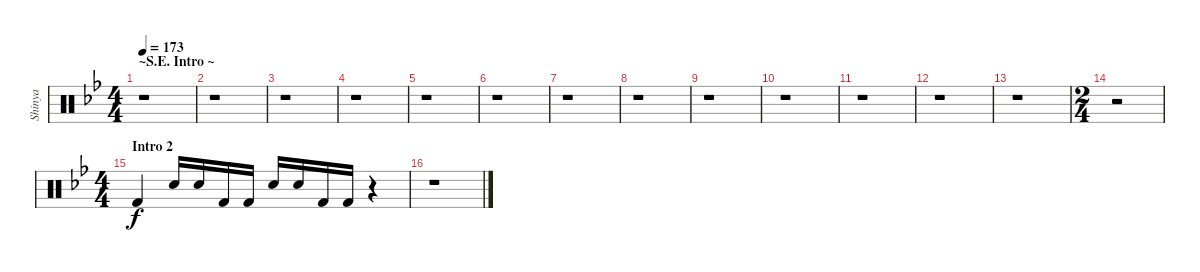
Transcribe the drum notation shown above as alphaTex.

\track ("Shinya" "Shinya") {instrument percussion}
\staff {score}
\articulation defaults
\ts (4 4)
\section ("" "~S.E. Intro ~")
\tempo 173
\clef neutral
\ks bb
r.1{dy f} |
r.1 |
r.1 |
r.1 |
r.1 |
r.1 |
r.1 |
r.1 |
r.1 |
r.1 |
r.1 |
r.1 |
r.1 |
\ts (2 4)
r.2 |
\ts (4 4)
\section ("" "Intro 2")
"Kick (hit) 2".4 "Snare (hit) 2".16 "Snare (hit) 2".16 "Kick (hit) 2".16 "Kick (hit) 2".16 "Snare (hit) 2".16 "Snare (hit) 2".16 "Kick (hit) 2".16 "Kick (hit) 2".16 r.4 |
r.1
